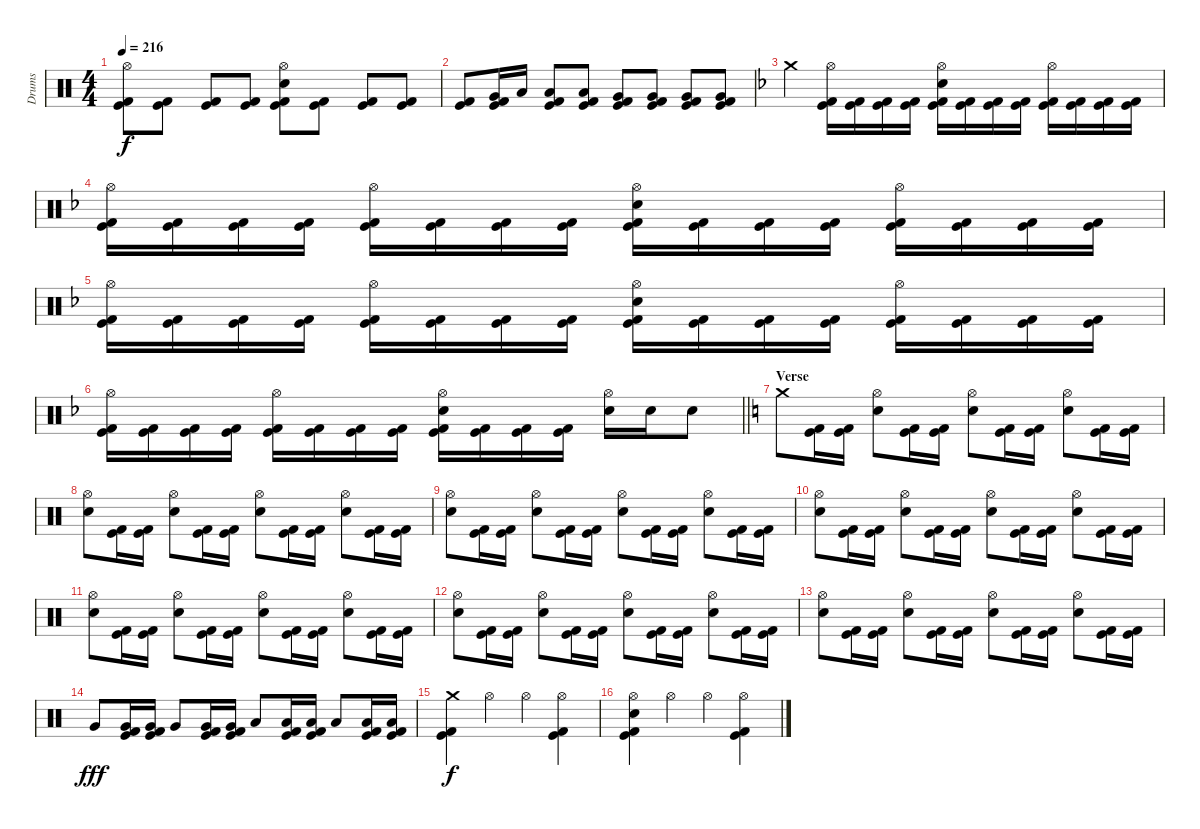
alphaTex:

\track ("Drums" "Drums") {instrument percussion}
\staff {score}
\articulation defaults
\ts (4 4)
\tempo 216
\clef neutral
\ks c
("Hi-Hat (open)" "Kick (hit)" "Kick (hit) 2").8{dy f} ("Kick (hit)" "Kick (hit) 2").8 ("Kick (hit)" "Kick (hit) 2").8 ("Kick (hit)" "Kick (hit) 2").8 ("Hi-Hat (open)" "Electric Snare (hit)" "Kick (hit)" "Kick (hit) 2").8 ("Kick (hit)" "Kick (hit) 2").8 ("Kick (hit)" "Kick (hit) 2").8 ("Kick (hit)" "Kick (hit) 2").8 |
("Kick (hit)" "Kick (hit) 2").8 ("Very Low Tom (hit)" "Kick (hit)" "Kick (hit) 2").16 "Low Tom (hit)".16 ("Low Tom (hit)" "Kick (hit)" "Kick (hit) 2").8 ("Low Tom (hit)" "Kick (hit)" "Kick (hit) 2").8 ("Very Low Tom (hit)" "Kick (hit)" "Kick (hit) 2").8 ("Very Low Tom (hit)" "Kick (hit)" "Kick (hit) 2").8 ("Very Low Tom (hit)" "Kick (hit)" "Kick (hit) 2").8 ("Very Low Tom (hit)" "Kick (hit)" "Kick (hit) 2").8 |
\ks f "Crash medium (hit)".4
("Hi-Hat (open)" "Kick (hit)" "Kick (hit) 2").16 ("Kick (hit)" "Kick (hit) 2").16 ("Kick (hit)" "Kick (hit) 2").16 ("Kick (hit)" "Kick (hit) 2").16 ("Hi-Hat (open)" "Electric Snare (hit)" "Kick (hit)" "Kick (hit) 2").16 ("Kick (hit)" "Kick (hit) 2").16 ("Kick (hit)" "Kick (hit) 2").16 ("Kick (hit)" "Kick (hit) 2").16 ("Hi-Hat (open)" "Kick (hit)" "Kick (hit) 2").16 ("Kick (hit)" "Kick (hit) 2").16 ("Kick (hit)" "Kick (hit) 2").16 ("Kick (hit)" "Kick (hit) 2").16 |
("Hi-Hat (open)" "Kick (hit)" "Kick (hit) 2").16 ("Kick (hit)" "Kick (hit) 2").16 ("Kick (hit)" "Kick (hit) 2").16 ("Kick (hit)" "Kick (hit) 2").16 ("Hi-Hat (open)" "Kick (hit)" "Kick (hit) 2").16 ("Kick (hit)" "Kick (hit) 2").16 ("Kick (hit)" "Kick (hit) 2").16 ("Kick (hit)" "Kick (hit) 2").16 ("Hi-Hat (open)" "Electric Snare (hit)" "Kick (hit)" "Kick (hit) 2").16 ("Kick (hit)" "Kick (hit) 2").16 ("Kick (hit)" "Kick (hit) 2").16 ("Kick (hit)" "Kick (hit) 2").16 ("Hi-Hat (open)" "Kick (hit)" "Kick (hit) 2").16 ("Kick (hit)" "Kick (hit) 2").16 ("Kick (hit)" "Kick (hit) 2").16 ("Kick (hit)" "Kick (hit) 2").16 |
("Hi-Hat (open)" "Kick (hit)" "Kick (hit) 2").16 ("Kick (hit)" "Kick (hit) 2").16 ("Kick (hit)" "Kick (hit) 2").16 ("Kick (hit)" "Kick (hit) 2").16 ("Hi-Hat (open)" "Kick (hit)" "Kick (hit) 2").16 ("Kick (hit)" "Kick (hit) 2").16 ("Kick (hit)" "Kick (hit) 2").16 ("Kick (hit)" "Kick (hit) 2").16 ("Hi-Hat (open)" "Electric Snare (hit)" "Kick (hit)" "Kick (hit) 2").16 ("Kick (hit)" "Kick (hit) 2").16 ("Kick (hit)" "Kick (hit) 2").16 ("Kick (hit)" "Kick (hit) 2").16 ("Hi-Hat (open)" "Kick (hit)" "Kick (hit) 2").16 ("Kick (hit)" "Kick (hit) 2").16 ("Kick (hit)" "Kick (hit) 2").16 ("Kick (hit)" "Kick (hit) 2").16 |
\barLineRight lightlight
("Hi-Hat (open)" "Kick (hit)" "Kick (hit) 2").16 ("Kick (hit)" "Kick (hit) 2").16 ("Kick (hit)" "Kick (hit) 2").16 ("Kick (hit)" "Kick (hit) 2").16 ("Hi-Hat (open)" "Kick (hit)" "Kick (hit) 2").16 ("Kick (hit)" "Kick (hit) 2").16 ("Kick (hit)" "Kick (hit) 2").16 ("Kick (hit)" "Kick (hit) 2").16 ("Hi-Hat (open)" "Electric Snare (hit)" "Kick (hit)" "Kick (hit) 2").16 ("Kick (hit)" "Kick (hit) 2").16 ("Kick (hit)" "Kick (hit) 2").16 ("Kick (hit)" "Kick (hit) 2").16 ("Hi-Hat (open)" "Electric Snare (hit)").16 "Electric Snare (hit)".16 "Electric Snare (hit)".8 |
\section ("" "Verse")
\ks c "Crash medium (hit)".8
("Kick (hit)" "Kick (hit) 2").16 ("Kick (hit)" "Kick (hit) 2").16 ("Hi-Hat (open)" "Electric Snare (hit)").8 ("Kick (hit)" "Kick (hit) 2").16 ("Kick (hit)" "Kick (hit) 2").16 ("Hi-Hat (open)" "Electric Snare (hit)").8 ("Kick (hit)" "Kick (hit) 2").16 ("Kick (hit)" "Kick (hit) 2").16 ("Hi-Hat (open)" "Electric Snare (hit)").8 ("Kick (hit)" "Kick (hit) 2").16 ("Kick (hit)" "Kick (hit) 2").16 |
("Hi-Hat (open)" "Electric Snare (hit)").8 ("Kick (hit)" "Kick (hit) 2").16 ("Kick (hit)" "Kick (hit) 2").16 ("Hi-Hat (open)" "Electric Snare (hit)").8 ("Kick (hit)" "Kick (hit) 2").16 ("Kick (hit)" "Kick (hit) 2").16 ("Hi-Hat (open)" "Electric Snare (hit)").8 ("Kick (hit)" "Kick (hit) 2").16 ("Kick (hit)" "Kick (hit) 2").16 ("Hi-Hat (open)" "Electric Snare (hit)").8 ("Kick (hit)" "Kick (hit) 2").16 ("Kick (hit)" "Kick (hit) 2").16 |
("Hi-Hat (open)" "Electric Snare (hit)").8 ("Kick (hit)" "Kick (hit) 2").16 ("Kick (hit)" "Kick (hit) 2").16 ("Hi-Hat (open)" "Electric Snare (hit)").8 ("Kick (hit)" "Kick (hit) 2").16 ("Kick (hit)" "Kick (hit) 2").16 ("Hi-Hat (open)" "Electric Snare (hit)").8 ("Kick (hit)" "Kick (hit) 2").16 ("Kick (hit)" "Kick (hit) 2").16 ("Hi-Hat (open)" "Electric Snare (hit)").8 ("Kick (hit)" "Kick (hit) 2").16 ("Kick (hit)" "Kick (hit) 2").16 |
("Hi-Hat (open)" "Electric Snare (hit)").8 ("Kick (hit)" "Kick (hit) 2").16 ("Kick (hit)" "Kick (hit) 2").16 ("Hi-Hat (open)" "Electric Snare (hit)").8 ("Kick (hit)" "Kick (hit) 2").16 ("Kick (hit)" "Kick (hit) 2").16 ("Hi-Hat (open)" "Electric Snare (hit)").8 ("Kick (hit)" "Kick (hit) 2").16 ("Kick (hit)" "Kick (hit) 2").16 ("Hi-Hat (open)" "Electric Snare (hit)").8 ("Kick (hit)" "Kick (hit) 2").16 ("Kick (hit)" "Kick (hit) 2").16 |
("Hi-Hat (open)" "Electric Snare (hit)").8 ("Kick (hit)" "Kick (hit) 2").16 ("Kick (hit)" "Kick (hit) 2").16 ("Hi-Hat (open)" "Electric Snare (hit)").8 ("Kick (hit)" "Kick (hit) 2").16 ("Kick (hit)" "Kick (hit) 2").16 ("Hi-Hat (open)" "Electric Snare (hit)").8 ("Kick (hit)" "Kick (hit) 2").16 ("Kick (hit)" "Kick (hit) 2").16 ("Hi-Hat (open)" "Electric Snare (hit)").8 ("Kick (hit)" "Kick (hit) 2").16 ("Kick (hit)" "Kick (hit) 2").16 |
("Hi-Hat (open)" "Electric Snare (hit)").8 ("Kick (hit)" "Kick (hit) 2").16 ("Kick (hit)" "Kick (hit) 2").16 ("Hi-Hat (open)" "Electric Snare (hit)").8 ("Kick (hit)" "Kick (hit) 2").16 ("Kick (hit)" "Kick (hit) 2").16 ("Hi-Hat (open)" "Electric Snare (hit)").8 ("Kick (hit)" "Kick (hit) 2").16 ("Kick (hit)" "Kick (hit) 2").16 ("Hi-Hat (open)" "Electric Snare (hit)").8 ("Kick (hit)" "Kick (hit) 2").16 ("Kick (hit)" "Kick (hit) 2").16 |
("Hi-Hat (open)" "Electric Snare (hit)").8 ("Kick (hit)" "Kick (hit) 2").16 ("Kick (hit)" "Kick (hit) 2").16 ("Hi-Hat (open)" "Electric Snare (hit)").8 ("Kick (hit)" "Kick (hit) 2").16 ("Kick (hit)" "Kick (hit) 2").16 ("Hi-Hat (open)" "Electric Snare (hit)").8 ("Kick (hit)" "Kick (hit) 2").16 ("Kick (hit)" "Kick (hit) 2").16 ("Hi-Hat (open)" "Electric Snare (hit)").8 ("Kick (hit)" "Kick (hit) 2").16 ("Kick (hit)" "Kick (hit) 2").16 |
"Very Low Tom (hit)".8{dy fff} ("Very Low Tom (hit)" "Kick (hit)" "Kick (hit) 2").16 ("Very Low Tom (hit)" "Kick (hit)" "Kick (hit) 2").16 "Very Low Tom (hit)".8 ("Very Low Tom (hit)" "Kick (hit)" "Kick (hit) 2").16 ("Very Low Tom (hit)" "Kick (hit)" "Kick (hit) 2").16 "Low Floor Tom (hit)".8 ("Low Floor Tom (hit)" "Kick (hit)" "Kick (hit) 2").16 ("Low Floor Tom (hit)" "Kick (hit)" "Kick (hit) 2").16 "Low Floor Tom (hit)".8 ("Low Floor Tom (hit)" "Kick (hit)" "Kick (hit) 2").16 ("Low Floor Tom (hit)" "Kick (hit)" "Kick (hit) 2").16 |
("Crash medium (hit)" "Kick (hit)" "Kick (hit) 2").4{dy f} "Hi-Hat (open)".4 "Hi-Hat (open)".4 ("Hi-Hat (open)" "Kick (hit)" "Kick (hit) 2").4 |
("Hi-Hat (open)" "Electric Snare (hit)" "Kick (hit)" "Kick (hit) 2").4 "Hi-Hat (open)".4 "Hi-Hat (open)".4 ("Hi-Hat (open)" "Kick (hit)" "Kick (hit) 2").4
